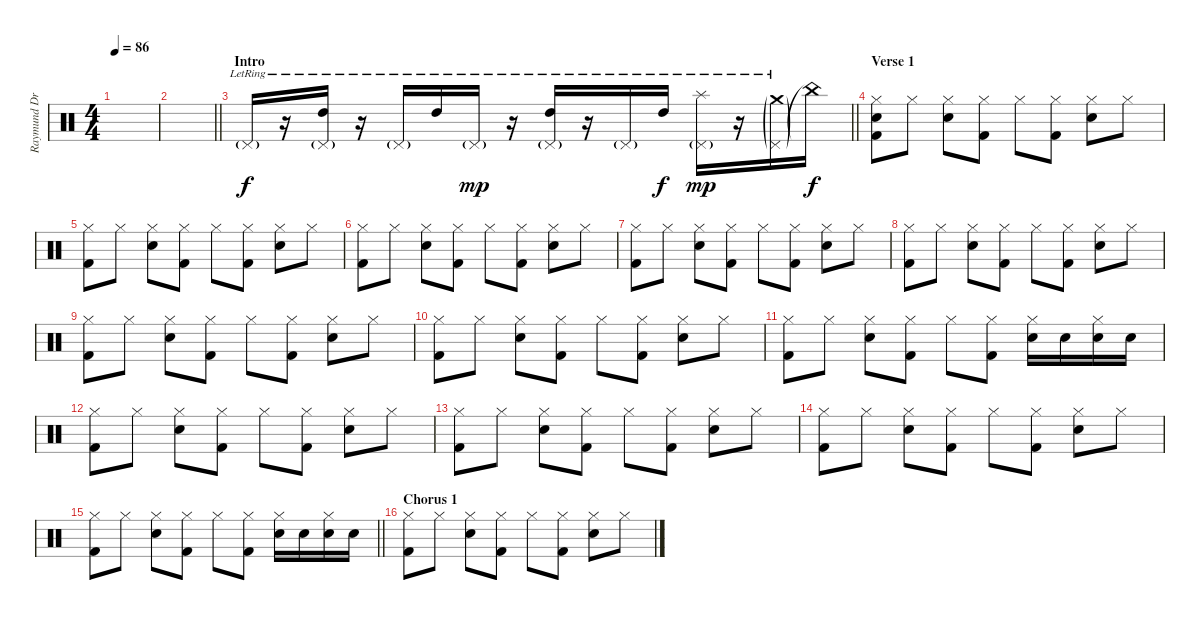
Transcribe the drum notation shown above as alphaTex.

\track ("Raymund Drums" "Raymund Dr") {instrument percussion}
\staff {score}
\articulation defaults
\ts (4 4)
\tempo 86
\clef neutral
\ks c
|
\barLineRight lightlight
|
\section ("" "Intro")
\barLineRight lightlight "Pedal Hi-Hat (hit)"{g lr}.16
r.16 ("Pedal Hi-Hat (hit)"{g lr} "High Tom (hit)"{lr}).16 r.16 "Pedal Hi-Hat (hit)"{g lr}.16 "High Tom (hit)"{lr}.16{dy f} "Pedal Hi-Hat (hit)"{g lr}.16{dy mp} r.16 ("Pedal Hi-Hat (hit)"{g lr} "High Tom (hit)"{lr}).16 r.16 "Pedal Hi-Hat (hit)"{g lr}.16 "High Tom (hit)"{lr}.16{dy f} ("Pedal Hi-Hat (hit)"{g lr} "Splash (hit)"{lr}).16{dy mp} r.16 ("Pedal Hi-Hat (hit)"{g lr} "Crash medium (hit)"{g lr}).16 "China (hit)"{t}.16{dy f} |
\section ("" "Verse 1")
("Hi-Hat (closed)" "Kick (hit) 2" "Snare (hit)").8 "Hi-Hat (closed)".8 ("Hi-Hat (closed)" "Snare (hit) 2").8 ("Hi-Hat (closed)" "Kick (hit) 2").8 "Hi-Hat (closed)".8 ("Hi-Hat (closed)" "Kick (hit) 2").8 ("Hi-Hat (closed)" "Snare (hit) 2").8 "Hi-Hat (closed)".8 |
("Hi-Hat (closed)" "Kick (hit) 2").8 "Hi-Hat (closed)".8 ("Hi-Hat (closed)" "Snare (hit) 2").8 ("Hi-Hat (closed)" "Kick (hit) 2").8 "Hi-Hat (closed)".8 ("Hi-Hat (closed)" "Kick (hit) 2").8 ("Hi-Hat (closed)" "Snare (hit) 2").8 "Hi-Hat (closed)".8 |
("Hi-Hat (closed)" "Kick (hit) 2").8 "Hi-Hat (closed)".8 ("Hi-Hat (closed)" "Snare (hit) 2").8 ("Hi-Hat (closed)" "Kick (hit) 2").8 "Hi-Hat (closed)".8 ("Hi-Hat (closed)" "Kick (hit) 2").8 ("Hi-Hat (closed)" "Snare (hit) 2").8 "Hi-Hat (closed)".8 |
("Hi-Hat (closed)" "Kick (hit) 2").8 "Hi-Hat (closed)".8 ("Hi-Hat (closed)" "Snare (hit) 2").8 ("Hi-Hat (closed)" "Kick (hit) 2").8 "Hi-Hat (closed)".8 ("Hi-Hat (closed)" "Kick (hit) 2").8 ("Hi-Hat (closed)" "Snare (hit) 2").8 "Hi-Hat (closed)".8 |
("Hi-Hat (closed)" "Kick (hit) 2").8 "Hi-Hat (closed)".8 ("Hi-Hat (closed)" "Snare (hit) 2").8 ("Hi-Hat (closed)" "Kick (hit) 2").8 "Hi-Hat (closed)".8 ("Hi-Hat (closed)" "Kick (hit) 2").8 ("Hi-Hat (closed)" "Snare (hit) 2").8 "Hi-Hat (closed)".8 |
("Hi-Hat (closed)" "Kick (hit) 2").8 "Hi-Hat (closed)".8 ("Hi-Hat (closed)" "Snare (hit) 2").8 ("Hi-Hat (closed)" "Kick (hit) 2").8 "Hi-Hat (closed)".8 ("Hi-Hat (closed)" "Kick (hit) 2").8 ("Hi-Hat (closed)" "Snare (hit) 2").8 "Hi-Hat (closed)".8 |
("Hi-Hat (closed)" "Kick (hit) 2").8 "Hi-Hat (closed)".8 ("Hi-Hat (closed)" "Snare (hit) 2").8 ("Hi-Hat (closed)" "Kick (hit) 2").8 "Hi-Hat (closed)".8 ("Hi-Hat (closed)" "Kick (hit) 2").8 ("Hi-Hat (closed)" "Snare (hit) 2").8 "Hi-Hat (closed)".8 |
("Hi-Hat (closed)" "Kick (hit) 2").8 "Hi-Hat (closed)".8 ("Hi-Hat (closed)" "Snare (hit) 2").8 ("Hi-Hat (closed)" "Kick (hit) 2").8 "Hi-Hat (closed)".8 ("Hi-Hat (closed)" "Kick (hit) 2").8 ("Hi-Hat (closed)" "Snare (hit) 2").16 "Snare (hit) 2".16 ("Hi-Hat (closed)" "Snare (hit) 2").16 "Snare (hit) 2".16 |
("Hi-Hat (closed)" "Kick (hit) 2").8 "Hi-Hat (closed)".8 ("Hi-Hat (closed)" "Snare (hit) 2").8 ("Hi-Hat (closed)" "Kick (hit) 2").8 "Hi-Hat (closed)".8 ("Hi-Hat (closed)" "Kick (hit) 2").8 ("Hi-Hat (closed)" "Snare (hit) 2").8 "Hi-Hat (closed)".8 |
("Hi-Hat (closed)" "Kick (hit) 2").8 "Hi-Hat (closed)".8 ("Hi-Hat (closed)" "Snare (hit) 2").8 ("Hi-Hat (closed)" "Kick (hit) 2").8 "Hi-Hat (closed)".8 ("Hi-Hat (closed)" "Kick (hit) 2").8 ("Hi-Hat (closed)" "Snare (hit) 2").8 "Hi-Hat (closed)".8 |
("Hi-Hat (closed)" "Kick (hit) 2").8 "Hi-Hat (closed)".8 ("Hi-Hat (closed)" "Snare (hit) 2").8 ("Hi-Hat (closed)" "Kick (hit) 2").8 "Hi-Hat (closed)".8 ("Hi-Hat (closed)" "Kick (hit) 2").8 ("Hi-Hat (closed)" "Snare (hit) 2").8 "Hi-Hat (closed)".8 |
\barLineRight lightlight
("Hi-Hat (closed)" "Kick (hit) 2").8 "Hi-Hat (closed)".8 ("Hi-Hat (closed)" "Snare (hit) 2").8 ("Hi-Hat (closed)" "Kick (hit) 2").8 "Hi-Hat (closed)".8 ("Hi-Hat (closed)" "Kick (hit) 2").8 ("Hi-Hat (closed)" "Snare (hit) 2").16 "Snare (hit) 2".16 ("Hi-Hat (closed)" "Snare (hit) 2").16 "Snare (hit) 2".16 |
\section ("" "Chorus 1")
("Hi-Hat (closed)" "Kick (hit) 2").8 "Hi-Hat (closed)".8 ("Hi-Hat (closed)" "Snare (hit) 2").8 ("Hi-Hat (closed)" "Kick (hit) 2").8 "Hi-Hat (closed)".8 ("Hi-Hat (closed)" "Kick (hit) 2").8 ("Hi-Hat (closed)" "Snare (hit) 2").8 "Hi-Hat (closed)".8
